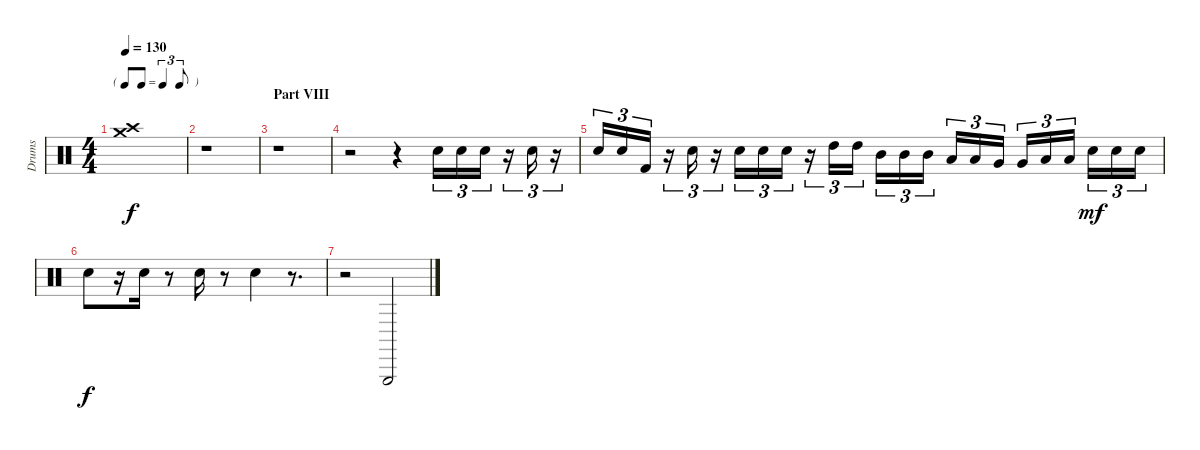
\track ("Drums" "Drums") {instrument percussion}
\staff {score}
\articulation defaults
\ts (4 4)
\tf triplet8th
\tempo 130
\clef neutral
\ks c
("Crash medium (hit)" "Crash high (hit)").1{dy f} |
r.1 |
\section ("" "Part VIII")
r.1 |
r.2 r.4 "Snare (hit) 2".16{tu (3 2)} "Snare (hit) 2".16{tu (3 2)} "Snare (hit) 2".16{tu (3 2)} r.16{tu (3 2)} "Snare (hit) 2".16{tu (3 2)} r.16{tu (3 2)} |
"Snare (hit) 2".16{tu (3 2)} "Snare (hit) 2".16{tu (3 2)} "Kick (hit) 2".16{tu (3 2)} r.16{tu (3 2)} "Snare (hit) 2".16{tu (3 2)} r.16{tu (3 2)} "Snare (hit) 2".16{tu (3 2)} "Snare (hit) 2".16{tu (3 2)} "Snare (hit) 2".16{tu (3 2)} r.16{tu (3 2)} "High Tom (hit)".16{tu (3 2)} "High Tom (hit)".16{tu (3 2)} "Mid Tom (hit)".16{tu (3 2)} "Mid Tom (hit)".16{tu (3 2)} "Mid Tom (hit)".16{tu (3 2)} "Low Tom (hit)".16{tu (3 2)} "Low Tom (hit)".16{tu (3 2)} "Very Low Tom (hit)".16{tu (3 2)} "Very Low Tom (hit)".16{tu (3 2)} "Low Floor Tom (hit)".16{tu (3 2)} "Low Floor Tom (hit)".16{tu (3 2)} "Electric Snare (hit)".16{tu (3 2) dy mf} "Electric Snare (hit)".16{tu (3 2)} "Electric Snare (hit)".16{tu (3 2)} |
"Electric Snare (hit)".8{dy f} r.16 "Electric Snare (hit)".16 r.8 "Electric Snare (hit)".16 r.8 "Electric Snare (hit)".4 r.8{d} |
r.2 "Triangle (hit)".2
